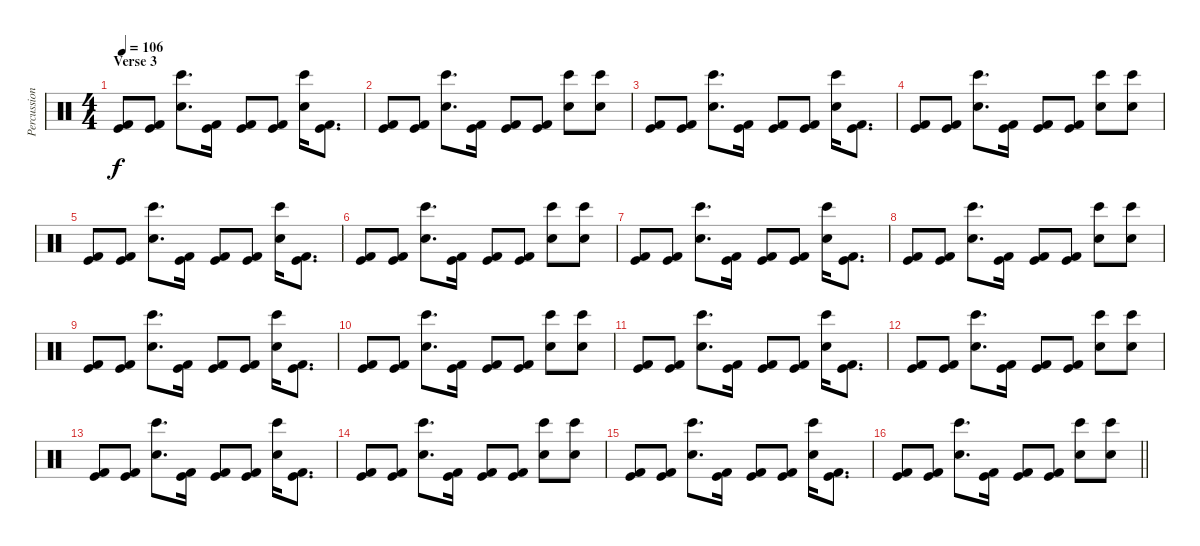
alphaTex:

\track ("Percussion" "Percussion") {instrument percussion}
\staff {score}
\articulation defaults
\ts (4 4)
\section ("" "Verse 3")
\tempo 106
\clef neutral
\ks c
("Kick (hit)" "Kick (hit) 2").8{dy f} ("Kick (hit)" "Kick (hit) 2").8 ("Bongo High (hit)" "Hand Clap (hit)").8{d} ("Kick (hit)" "Kick (hit) 2").16 ("Kick (hit)" "Kick (hit) 2").8 ("Kick (hit)" "Kick (hit) 2").8 ("Bongo High (hit)" "Hand Clap (hit)").16 ("Kick (hit)" "Kick (hit) 2").8{d} |
("Kick (hit)" "Kick (hit) 2").8 ("Kick (hit)" "Kick (hit) 2").8 ("Bongo High (hit)" "Hand Clap (hit)").8{d} ("Kick (hit)" "Kick (hit) 2").16 ("Kick (hit)" "Kick (hit) 2").8 ("Kick (hit)" "Kick (hit) 2").8 ("Bongo High (hit)" "Hand Clap (hit)").8 ("Bongo High (hit)" "Hand Clap (hit)").8 |
("Kick (hit)" "Kick (hit) 2").8 ("Kick (hit)" "Kick (hit) 2").8 ("Bongo High (hit)" "Hand Clap (hit)").8{d} ("Kick (hit)" "Kick (hit) 2").16 ("Kick (hit)" "Kick (hit) 2").8 ("Kick (hit)" "Kick (hit) 2").8 ("Bongo High (hit)" "Hand Clap (hit)").16 ("Kick (hit)" "Kick (hit) 2").8{d} |
("Kick (hit)" "Kick (hit) 2").8 ("Kick (hit)" "Kick (hit) 2").8 ("Bongo High (hit)" "Hand Clap (hit)").8{d} ("Kick (hit)" "Kick (hit) 2").16 ("Kick (hit)" "Kick (hit) 2").8 ("Kick (hit)" "Kick (hit) 2").8 ("Bongo High (hit)" "Hand Clap (hit)").8 ("Bongo High (hit)" "Hand Clap (hit)").8 |
("Kick (hit)" "Kick (hit) 2").8 ("Kick (hit)" "Kick (hit) 2").8 ("Bongo High (hit)" "Hand Clap (hit)").8{d} ("Kick (hit)" "Kick (hit) 2").16 ("Kick (hit)" "Kick (hit) 2").8 ("Kick (hit)" "Kick (hit) 2").8 ("Bongo High (hit)" "Hand Clap (hit)").16 ("Kick (hit)" "Kick (hit) 2").8{d} |
("Kick (hit)" "Kick (hit) 2").8 ("Kick (hit)" "Kick (hit) 2").8 ("Bongo High (hit)" "Hand Clap (hit)").8{d} ("Kick (hit)" "Kick (hit) 2").16 ("Kick (hit)" "Kick (hit) 2").8 ("Kick (hit)" "Kick (hit) 2").8 ("Bongo High (hit)" "Hand Clap (hit)").8 ("Bongo High (hit)" "Hand Clap (hit)").8 |
("Kick (hit)" "Kick (hit) 2").8 ("Kick (hit)" "Kick (hit) 2").8 ("Bongo High (hit)" "Hand Clap (hit)").8{d} ("Kick (hit)" "Kick (hit) 2").16 ("Kick (hit)" "Kick (hit) 2").8 ("Kick (hit)" "Kick (hit) 2").8 ("Bongo High (hit)" "Hand Clap (hit)").16 ("Kick (hit)" "Kick (hit) 2").8{d} |
("Kick (hit)" "Kick (hit) 2").8 ("Kick (hit)" "Kick (hit) 2").8 ("Bongo High (hit)" "Hand Clap (hit)").8{d} ("Kick (hit)" "Kick (hit) 2").16 ("Kick (hit)" "Kick (hit) 2").8 ("Kick (hit)" "Kick (hit) 2").8 ("Bongo High (hit)" "Hand Clap (hit)").8 ("Bongo High (hit)" "Hand Clap (hit)").8 |
("Kick (hit)" "Kick (hit) 2").8 ("Kick (hit)" "Kick (hit) 2").8 ("Bongo High (hit)" "Hand Clap (hit)").8{d} ("Kick (hit)" "Kick (hit) 2").16 ("Kick (hit)" "Kick (hit) 2").8 ("Kick (hit)" "Kick (hit) 2").8 ("Bongo High (hit)" "Hand Clap (hit)").16 ("Kick (hit)" "Kick (hit) 2").8{d} |
("Kick (hit)" "Kick (hit) 2").8 ("Kick (hit)" "Kick (hit) 2").8 ("Bongo High (hit)" "Hand Clap (hit)").8{d} ("Kick (hit)" "Kick (hit) 2").16 ("Kick (hit)" "Kick (hit) 2").8 ("Kick (hit)" "Kick (hit) 2").8 ("Bongo High (hit)" "Hand Clap (hit)").8 ("Bongo High (hit)" "Hand Clap (hit)").8 |
("Kick (hit)" "Kick (hit) 2").8 ("Kick (hit)" "Kick (hit) 2").8 ("Bongo High (hit)" "Hand Clap (hit)").8{d} ("Kick (hit)" "Kick (hit) 2").16 ("Kick (hit)" "Kick (hit) 2").8 ("Kick (hit)" "Kick (hit) 2").8 ("Bongo High (hit)" "Hand Clap (hit)").16 ("Kick (hit)" "Kick (hit) 2").8{d} |
("Kick (hit)" "Kick (hit) 2").8 ("Kick (hit)" "Kick (hit) 2").8 ("Bongo High (hit)" "Hand Clap (hit)").8{d} ("Kick (hit)" "Kick (hit) 2").16 ("Kick (hit)" "Kick (hit) 2").8 ("Kick (hit)" "Kick (hit) 2").8 ("Bongo High (hit)" "Hand Clap (hit)").8 ("Bongo High (hit)" "Hand Clap (hit)").8 |
("Kick (hit)" "Kick (hit) 2").8 ("Kick (hit)" "Kick (hit) 2").8 ("Bongo High (hit)" "Hand Clap (hit)").8{d} ("Kick (hit)" "Kick (hit) 2").16 ("Kick (hit)" "Kick (hit) 2").8 ("Kick (hit)" "Kick (hit) 2").8 ("Bongo High (hit)" "Hand Clap (hit)").16 ("Kick (hit)" "Kick (hit) 2").8{d} |
("Kick (hit)" "Kick (hit) 2").8 ("Kick (hit)" "Kick (hit) 2").8 ("Bongo High (hit)" "Hand Clap (hit)").8{d} ("Kick (hit)" "Kick (hit) 2").16 ("Kick (hit)" "Kick (hit) 2").8 ("Kick (hit)" "Kick (hit) 2").8 ("Bongo High (hit)" "Hand Clap (hit)").8 ("Bongo High (hit)" "Hand Clap (hit)").8 |
("Kick (hit)" "Kick (hit) 2").8 ("Kick (hit)" "Kick (hit) 2").8 ("Bongo High (hit)" "Hand Clap (hit)").8{d} ("Kick (hit)" "Kick (hit) 2").16 ("Kick (hit)" "Kick (hit) 2").8 ("Kick (hit)" "Kick (hit) 2").8 ("Bongo High (hit)" "Hand Clap (hit)").16 ("Kick (hit)" "Kick (hit) 2").8{d} |
\barLineRight lightlight
("Kick (hit)" "Kick (hit) 2").8 ("Kick (hit)" "Kick (hit) 2").8 ("Bongo High (hit)" "Hand Clap (hit)").8{d} ("Kick (hit)" "Kick (hit) 2").16 ("Kick (hit)" "Kick (hit) 2").8 ("Kick (hit)" "Kick (hit) 2").8 ("Bongo High (hit)" "Hand Clap (hit)").8 ("Bongo High (hit)" "Hand Clap (hit)").8
